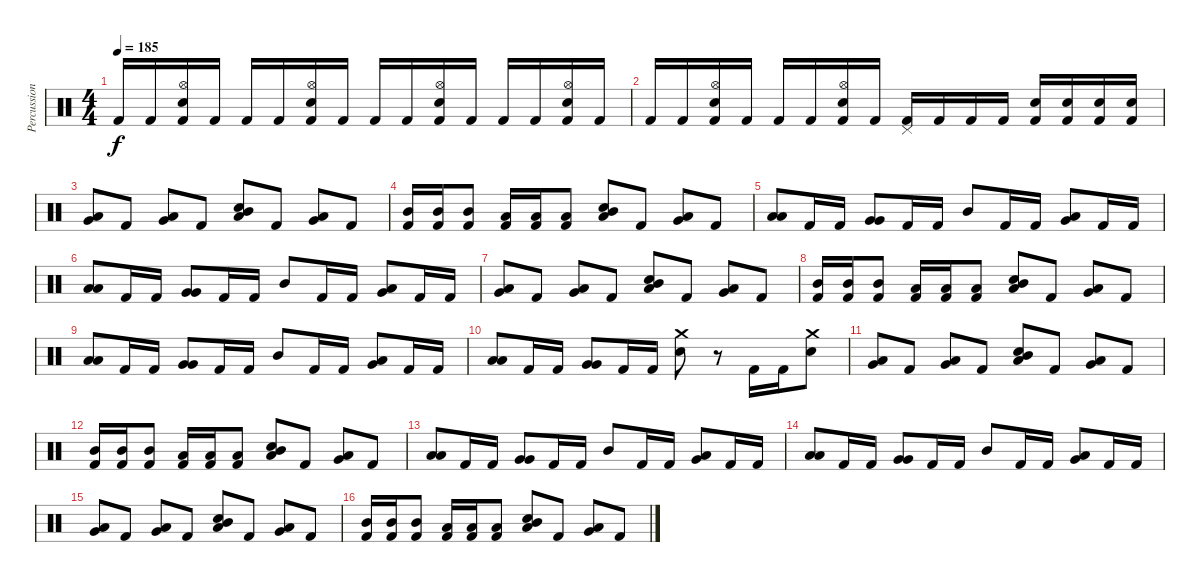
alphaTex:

\track ("Percussion" "Percussion") {instrument percussion}
\staff {score}
\articulation defaults
\ts (4 4)
\tempo 185
\clef neutral
\ks c "Kick (hit) 2".16{dy f} "Kick (hit) 2".16
("Hi-Hat (open)" "Electric Snare (hit)" "Kick (hit) 2").16 "Kick (hit) 2".16 "Kick (hit) 2".16 "Kick (hit) 2".16 ("Hi-Hat (open)" "Electric Snare (hit)" "Kick (hit) 2").16 "Kick (hit) 2".16 "Kick (hit) 2".16 "Kick (hit) 2".16 ("Hi-Hat (open)" "Electric Snare (hit)" "Kick (hit) 2").16 "Kick (hit) 2".16 "Kick (hit) 2".16 "Kick (hit) 2".16 ("Hi-Hat (open)" "Electric Snare (hit)" "Kick (hit) 2").16 "Kick (hit) 2".16 |
"Kick (hit) 2".16 "Kick (hit) 2".16 ("Hi-Hat (open)" "Electric Snare (hit)" "Kick (hit) 2").16 "Kick (hit) 2".16 "Kick (hit) 2".16 "Kick (hit) 2".16 ("Hi-Hat (open)" "Electric Snare (hit)" "Kick (hit) 2").16 "Kick (hit) 2".16 ("Pedal Hi-Hat (hit)" "Kick (hit) 2").16 "Kick (hit) 2".16 "Kick (hit) 2".16 "Kick (hit) 2".16 ("Electric Snare (hit)" "Kick (hit) 2").16 ("Electric Snare (hit)" "Kick (hit) 2").16 ("Electric Snare (hit)" "Kick (hit) 2").16 ("Electric Snare (hit)" "Kick (hit) 2").16 |
("Very Low Tom (hit)" "Low Tom (hit)").8 "Kick (hit) 2".8 ("Very Low Tom (hit)" "Low Tom (hit)").8 "Kick (hit) 2".8 ("Electric Snare (hit)" "Mid Tom (hit)" "Low Tom (hit)").8 "Kick (hit) 2".8 ("Very Low Tom (hit)" "Low Tom (hit)").8 "Kick (hit) 2".8 |
("Mid Tom (hit)" "Kick (hit) 2").16 ("Mid Tom (hit)" "Kick (hit) 2").16 ("Mid Tom (hit)" "Kick (hit) 2").8 ("Low Tom (hit)" "Kick (hit) 2").16 ("Low Tom (hit)" "Kick (hit) 2").16 ("Low Tom (hit)" "Kick (hit) 2").8 ("Low Tom (hit)" "Mid Tom (hit)" "Electric Snare (hit)").8 "Kick (hit) 2".8 ("Very Low Tom (hit)" "Low Tom (hit)").8 "Kick (hit) 2".8 |
("Low Tom (hit)" "Low Tom (hit)").8 "Kick (hit) 2".16 "Kick (hit) 2".16 ("Very Low Tom (hit)" "Very Low Tom (hit)").8 "Kick (hit) 2".16 "Kick (hit) 2".16 "Mid Tom (hit)".8 "Kick (hit) 2".16 "Kick (hit) 2".16 ("Very Low Tom (hit)" "Low Tom (hit)").8 "Kick (hit) 2".16 "Kick (hit) 2".16 |
("Low Tom (hit)" "Low Tom (hit)").8 "Kick (hit) 2".16 "Kick (hit) 2".16 ("Very Low Tom (hit)" "Very Low Tom (hit)").8 "Kick (hit) 2".16 "Kick (hit) 2".16 "Mid Tom (hit)".8 "Kick (hit) 2".16 "Kick (hit) 2".16 ("Very Low Tom (hit)" "Low Tom (hit)").8 "Kick (hit) 2".16 "Kick (hit) 2".16 |
("Very Low Tom (hit)" "Low Tom (hit)").8 "Kick (hit) 2".8 ("Very Low Tom (hit)" "Low Tom (hit)").8 "Kick (hit) 2".8 ("Electric Snare (hit)" "Mid Tom (hit)" "Low Tom (hit)").8 "Kick (hit) 2".8 ("Very Low Tom (hit)" "Low Tom (hit)").8 "Kick (hit) 2".8 |
("Mid Tom (hit)" "Kick (hit) 2").16 ("Mid Tom (hit)" "Kick (hit) 2").16 ("Mid Tom (hit)" "Kick (hit) 2").8 ("Low Tom (hit)" "Kick (hit) 2").16 ("Low Tom (hit)" "Kick (hit) 2").16 ("Low Tom (hit)" "Kick (hit) 2").8 ("Low Tom (hit)" "Mid Tom (hit)" "Electric Snare (hit)").8 "Kick (hit) 2".8 ("Very Low Tom (hit)" "Low Tom (hit)").8 "Kick (hit) 2".8 |
("Low Tom (hit)" "Low Tom (hit)").8 "Kick (hit) 2".16 "Kick (hit) 2".16 ("Very Low Tom (hit)" "Very Low Tom (hit)").8 "Kick (hit) 2".16 "Kick (hit) 2".16 "Mid Tom (hit)".8 "Kick (hit) 2".16 "Kick (hit) 2".16 ("Very Low Tom (hit)" "Low Tom (hit)").8 "Kick (hit) 2".16 "Kick (hit) 2".16 |
("Low Tom (hit)" "Low Tom (hit)").8 "Kick (hit) 2".16 "Kick (hit) 2".16 ("Very Low Tom (hit)" "Very Low Tom (hit)").8 "Kick (hit) 2".16 "Kick (hit) 2".16 ("Crash medium (hit)" "Electric Snare (hit)").8 r.8 "Kick (hit) 2".16 "Kick (hit) 2".16 ("Crash medium (hit)" "Electric Snare (hit)").8 |
("Very Low Tom (hit)" "Low Tom (hit)").8 "Kick (hit) 2".8 ("Very Low Tom (hit)" "Low Tom (hit)").8 "Kick (hit) 2".8 ("Electric Snare (hit)" "Mid Tom (hit)" "Low Tom (hit)").8 "Kick (hit) 2".8 ("Very Low Tom (hit)" "Low Tom (hit)").8 "Kick (hit) 2".8 |
("Mid Tom (hit)" "Kick (hit) 2").16 ("Mid Tom (hit)" "Kick (hit) 2").16 ("Mid Tom (hit)" "Kick (hit) 2").8 ("Low Tom (hit)" "Kick (hit) 2").16 ("Low Tom (hit)" "Kick (hit) 2").16 ("Low Tom (hit)" "Kick (hit) 2").8 ("Low Tom (hit)" "Mid Tom (hit)" "Electric Snare (hit)").8 "Kick (hit) 2".8 ("Very Low Tom (hit)" "Low Tom (hit)").8 "Kick (hit) 2".8 |
("Low Tom (hit)" "Low Tom (hit)").8 "Kick (hit) 2".16 "Kick (hit) 2".16 ("Very Low Tom (hit)" "Very Low Tom (hit)").8 "Kick (hit) 2".16 "Kick (hit) 2".16 "Mid Tom (hit)".8 "Kick (hit) 2".16 "Kick (hit) 2".16 ("Very Low Tom (hit)" "Low Tom (hit)").8 "Kick (hit) 2".16 "Kick (hit) 2".16 |
("Low Tom (hit)" "Low Tom (hit)").8 "Kick (hit) 2".16 "Kick (hit) 2".16 ("Very Low Tom (hit)" "Very Low Tom (hit)").8 "Kick (hit) 2".16 "Kick (hit) 2".16 "Mid Tom (hit)".8 "Kick (hit) 2".16 "Kick (hit) 2".16 ("Very Low Tom (hit)" "Low Tom (hit)").8 "Kick (hit) 2".16 "Kick (hit) 2".16 |
("Very Low Tom (hit)" "Low Tom (hit)").8 "Kick (hit) 2".8 ("Very Low Tom (hit)" "Low Tom (hit)").8 "Kick (hit) 2".8 ("Electric Snare (hit)" "Mid Tom (hit)" "Low Tom (hit)").8 "Kick (hit) 2".8 ("Very Low Tom (hit)" "Low Tom (hit)").8 "Kick (hit) 2".8 |
("Mid Tom (hit)" "Kick (hit) 2").16 ("Mid Tom (hit)" "Kick (hit) 2").16 ("Mid Tom (hit)" "Kick (hit) 2").8 ("Low Tom (hit)" "Kick (hit) 2").16 ("Low Tom (hit)" "Kick (hit) 2").16 ("Low Tom (hit)" "Kick (hit) 2").8 ("Low Tom (hit)" "Mid Tom (hit)" "Electric Snare (hit)").8 "Kick (hit) 2".8 ("Very Low Tom (hit)" "Low Tom (hit)").8 "Kick (hit) 2".8
